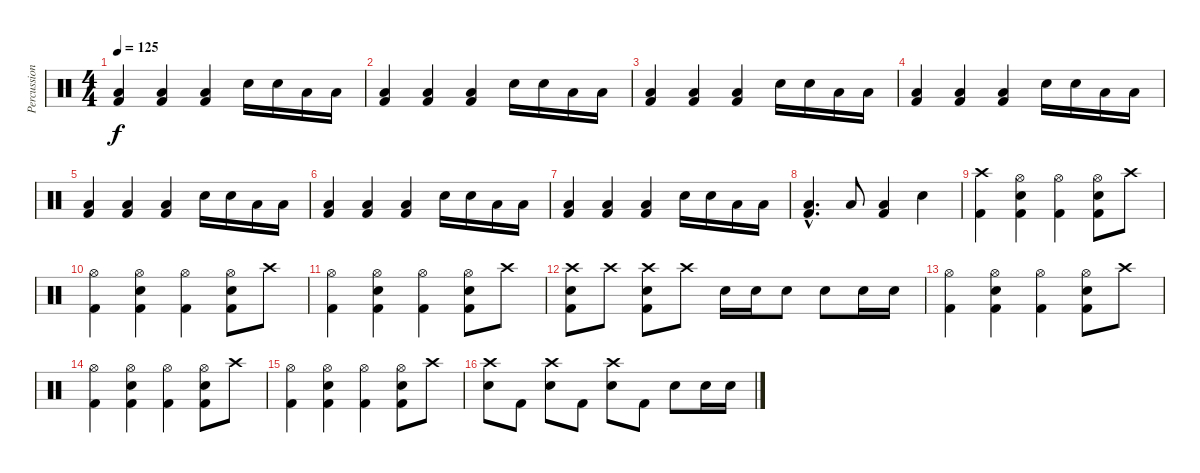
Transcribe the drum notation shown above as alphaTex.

\track ("Percussion" "Percussion") {instrument percussion}
\staff {score}
\articulation defaults
\ts (4 4)
\tempo 125
\clef neutral
\ks c
("Low Floor Tom (hit)" "Kick (hit) 2").4{dy f} ("Low Floor Tom (hit)" "Kick (hit) 2").4 ("Low Floor Tom (hit)" "Kick (hit) 2").4 "Snare (hit) 2".16 "Snare (hit) 2".16 "Low Tom (hit)".16 "Low Tom (hit)".16 |
("Low Floor Tom (hit)" "Kick (hit) 2").4 ("Low Floor Tom (hit)" "Kick (hit) 2").4 ("Low Floor Tom (hit)" "Kick (hit) 2").4 "Snare (hit) 2".16 "Snare (hit) 2".16 "Low Tom (hit)".16 "Low Tom (hit)".16 |
("Low Floor Tom (hit)" "Kick (hit) 2").4 ("Low Floor Tom (hit)" "Kick (hit) 2").4 ("Low Floor Tom (hit)" "Kick (hit) 2").4 "Snare (hit) 2".16 "Snare (hit) 2".16 "Low Tom (hit)".16 "Low Tom (hit)".16 |
("Low Floor Tom (hit)" "Kick (hit) 2").4 ("Low Floor Tom (hit)" "Kick (hit) 2").4 ("Low Floor Tom (hit)" "Kick (hit) 2").4 "Snare (hit) 2".16 "Snare (hit) 2".16 "Low Tom (hit)".16 "Low Tom (hit)".16 |
("Low Floor Tom (hit)" "Kick (hit) 2").4 ("Low Floor Tom (hit)" "Kick (hit) 2").4 ("Low Floor Tom (hit)" "Kick (hit) 2").4 "Snare (hit) 2".16 "Snare (hit) 2".16 "Low Tom (hit)".16 "Low Tom (hit)".16 |
("Low Floor Tom (hit)" "Kick (hit) 2").4 ("Low Floor Tom (hit)" "Kick (hit) 2").4 ("Low Floor Tom (hit)" "Kick (hit) 2").4 "Snare (hit) 2".16 "Snare (hit) 2".16 "Low Tom (hit)".16 "Low Tom (hit)".16 |
("Low Floor Tom (hit)" "Kick (hit) 2").4 ("Low Floor Tom (hit)" "Kick (hit) 2").4 ("Low Floor Tom (hit)" "Kick (hit) 2").4 "Snare (hit) 2".16 "Snare (hit) 2".16 "Low Tom (hit)".16 "Low Tom (hit)".16 |
("Low Floor Tom (hit)"{hac} "Kick (hit) 2"{hac}).4{d} "Low Tom (hit)".8 ("Low Floor Tom (hit)" "Kick (hit) 2").4 "Snare (hit) 2".4 |
("Crash high (hit)" "Kick (hit) 2").4 ("Hi-Hat (open)" "Snare (hit) 2" "Kick (hit) 2").4 ("Hi-Hat (open)" "Kick (hit) 2").4 ("Hi-Hat (open)" "Snare (hit) 2" "Kick (hit) 2").8 "Crash high (hit)".8 |
("Hi-Hat (open)" "Kick (hit) 2").4 ("Hi-Hat (open)" "Snare (hit) 2" "Kick (hit) 2").4 ("Hi-Hat (open)" "Kick (hit) 2").4 ("Hi-Hat (open)" "Snare (hit) 2" "Kick (hit) 2").8 "Crash high (hit)".8 |
("Hi-Hat (open)" "Kick (hit) 2").4 ("Hi-Hat (open)" "Snare (hit) 2" "Kick (hit) 2").4 ("Hi-Hat (open)" "Kick (hit) 2").4 ("Hi-Hat (open)" "Snare (hit) 2" "Kick (hit) 2").8 "Crash high (hit)".8 |
("Crash high (hit)" "Snare (hit) 2" "Kick (hit) 2").8 "Crash high (hit)".8 ("Crash high (hit)" "Snare (hit) 2" "Kick (hit) 2").8 "Crash high (hit)".8 "Snare (hit) 2".16 "Snare (hit) 2".16 "Snare (hit) 2".8 "Snare (hit) 2".8 "Snare (hit) 2".16 "Snare (hit) 2".16 |
("Hi-Hat (open)" "Kick (hit) 2").4 ("Hi-Hat (open)" "Snare (hit) 2" "Kick (hit) 2").4 ("Hi-Hat (open)" "Kick (hit) 2").4 ("Hi-Hat (open)" "Snare (hit) 2" "Kick (hit) 2").8 "Crash high (hit)".8 |
("Hi-Hat (open)" "Kick (hit) 2").4 ("Hi-Hat (open)" "Snare (hit) 2" "Kick (hit) 2").4 ("Hi-Hat (open)" "Kick (hit) 2").4 ("Hi-Hat (open)" "Snare (hit) 2" "Kick (hit) 2").8 "Crash high (hit)".8 |
("Hi-Hat (open)" "Kick (hit) 2").4 ("Hi-Hat (open)" "Snare (hit) 2" "Kick (hit) 2").4 ("Hi-Hat (open)" "Kick (hit) 2").4 ("Hi-Hat (open)" "Snare (hit) 2" "Kick (hit) 2").8 "Crash high (hit)".8 |
("Crash high (hit)" "Snare (hit) 2").8 "Kick (hit) 2".8 ("Crash high (hit)" "Snare (hit) 2").8 "Kick (hit) 2".8 ("Crash high (hit)" "Snare (hit) 2").8 "Kick (hit) 2".8 "Snare (hit) 2".8 "Snare (hit) 2".16 "Snare (hit) 2".16
